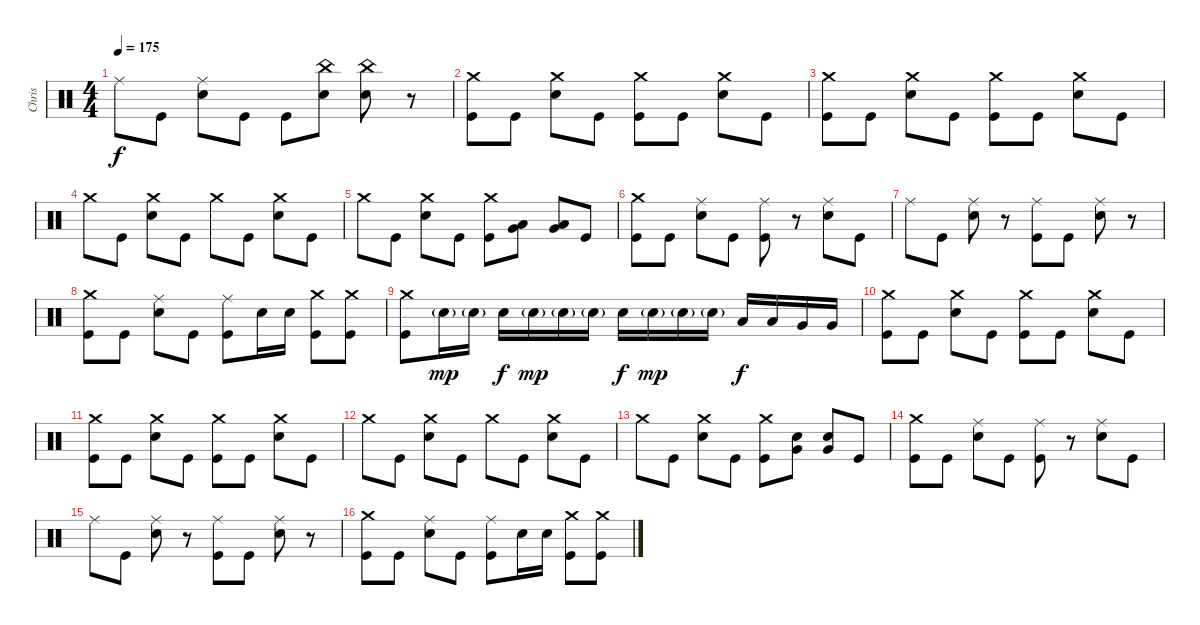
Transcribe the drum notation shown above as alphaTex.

\track ("Chris" "Chris") {instrument percussion}
\staff {score}
\articulation defaults
\ts (4 4)
\tempo 175
\clef neutral
\ks c "Ride (middle)".8{dy f} "Kick (hit)".8
("Ride (middle)" "Snare (hit) 2").8 "Kick (hit)".8 "Kick (hit)".8 ("China (hit)" "Snare (hit) 2").8 ("China (hit)" "Snare (hit) 2").8 r.8 |
("Crash medium (hit)" "Kick (hit)").8 "Kick (hit)".8 ("Crash medium (hit)" "Snare (hit) 2").8 "Kick (hit)".8 ("Crash medium (hit)" "Kick (hit)").8 "Kick (hit)".8 ("Crash medium (hit)" "Snare (hit) 2").8 "Kick (hit)".8 |
("Crash medium (hit)" "Kick (hit)").8 "Kick (hit)".8 ("Crash medium (hit)" "Snare (hit) 2").8 "Kick (hit)".8 ("Crash medium (hit)" "Kick (hit)").8 "Kick (hit)".8 ("Crash medium (hit)" "Snare (hit) 2").8 "Kick (hit)".8 |
"Crash medium (hit)".8 "Kick (hit)".8 ("Crash medium (hit)" "Snare (hit) 2").8 "Kick (hit)".8 "Crash medium (hit)".8 "Kick (hit)".8 ("Crash medium (hit)" "Snare (hit) 2").8 "Kick (hit)".8 |
"Crash medium (hit)".8 "Kick (hit)".8 ("Crash medium (hit)" "Snare (hit) 2").8 "Kick (hit)".8 ("Crash medium (hit)" "Kick (hit)").8 ("Very Low Tom (hit)" "Low Floor Tom (hit)").8 ("Very Low Tom (hit)" "Low Floor Tom (hit)").8 "Kick (hit)".8 |
("Crash medium (hit)" "Kick (hit)").8 "Kick (hit)".8 ("Ride (middle)" "Snare (hit) 2").8 "Kick (hit)".8 ("Ride (middle)" "Kick (hit)").8 r.8 ("Ride (middle)" "Snare (hit) 2").8 "Kick (hit)".8 |
"Ride (middle)".8 "Kick (hit)".8 ("Ride (middle)" "Snare (hit) 2").8 r.8 ("Ride (middle)" "Kick (hit)").8 "Kick (hit)".8 ("Ride (middle)" "Snare (hit) 2").8 r.8 |
("Crash medium (hit)" "Kick (hit)").8 "Kick (hit)".8 ("Ride (middle)" "Snare (hit) 2").8 "Kick (hit)".8 ("Ride (middle)" "Kick (hit)").8 "Snare (hit) 2".16 "Snare (hit) 2".16 ("Crash medium (hit)" "Kick (hit)").8 ("Crash medium (hit)" "Kick (hit)").8 |
("Crash medium (hit)" "Kick (hit)").8 "Snare (hit) 2"{g}.16{dy mp} "Snare (hit) 2"{g}.16 "Snare (hit) 2".16{dy f} "Snare (hit) 2"{g}.16{dy mp} "Snare (hit) 2"{g}.16 "Snare (hit) 2"{g}.16 "Snare (hit) 2".16{dy f} "Snare (hit) 2"{g}.16{dy mp} "Snare (hit) 2"{g}.16 "Snare (hit) 2"{g}.16 "Low Tom (hit)".16{dy f} "Low Tom (hit)".16 "Very Low Tom (hit)".16 "Very Low Tom (hit)".16 |
("Crash medium (hit)" "Kick (hit)").8 "Kick (hit)".8 ("Crash medium (hit)" "Snare (hit) 2").8 "Kick (hit)".8 ("Crash medium (hit)" "Kick (hit)").8 "Kick (hit)".8 ("Crash medium (hit)" "Snare (hit) 2").8 "Kick (hit)".8 |
("Crash medium (hit)" "Kick (hit)").8 "Kick (hit)".8 ("Crash medium (hit)" "Snare (hit) 2").8 "Kick (hit)".8 ("Crash medium (hit)" "Kick (hit)").8 "Kick (hit)".8 ("Crash medium (hit)" "Snare (hit) 2").8 "Kick (hit)".8 |
"Crash medium (hit)".8 "Kick (hit)".8 ("Crash medium (hit)" "Snare (hit) 2").8 "Kick (hit)".8 "Crash medium (hit)".8 "Kick (hit)".8 ("Crash medium (hit)" "Snare (hit) 2").8 "Kick (hit)".8 |
"Crash medium (hit)".8 "Kick (hit)".8 ("Crash medium (hit)" "Snare (hit) 2").8 "Kick (hit)".8 ("Crash medium (hit)" "Kick (hit)").8 ("Very Low Tom (hit)" "Snare (hit) 2").8 ("Very Low Tom (hit)" "Snare (hit) 2").8 "Kick (hit)".8 |
("Crash medium (hit)" "Kick (hit)").8 "Kick (hit)".8 ("Ride (middle)" "Snare (hit) 2").8 "Kick (hit)".8 ("Ride (middle)" "Kick (hit)").8 r.8 ("Ride (middle)" "Snare (hit) 2").8 "Kick (hit)".8 |
"Ride (middle)".8 "Kick (hit)".8 ("Ride (middle)" "Snare (hit) 2").8 r.8 ("Ride (middle)" "Kick (hit)").8 "Kick (hit)".8 ("Ride (middle)" "Snare (hit) 2").8 r.8 |
("Crash medium (hit)" "Kick (hit)").8 "Kick (hit)".8 ("Ride (middle)" "Snare (hit) 2").8 "Kick (hit)".8 ("Ride (middle)" "Kick (hit)").8 "Snare (hit) 2".16 "Snare (hit) 2".16 ("Crash medium (hit)" "Kick (hit)").8 ("Crash medium (hit)" "Kick (hit)").8
